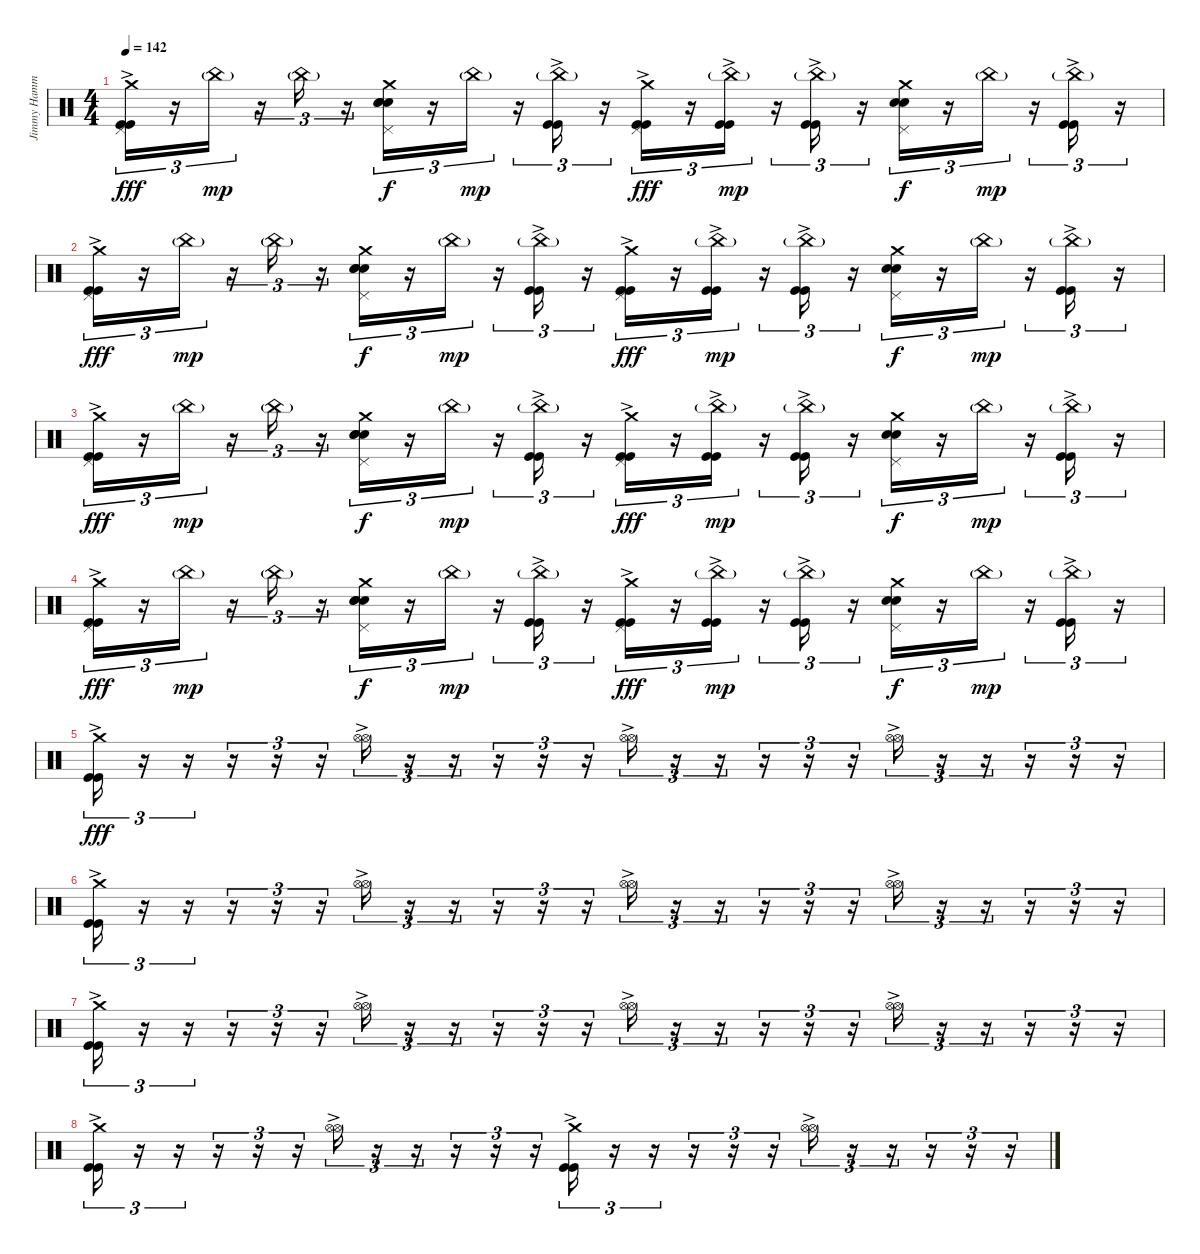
\track ("Jimmy Hammer" "Jimmy Hamm") {instrument percussion}
\staff {score}
\articulation defaults
\ts (4 4)
\tempo 142
\clef neutral
\ks c
("Kick (hit)"{ac} "Crash medium (hit)" "Pedal Hi-Hat (hit)" "Kick (hit)"{ac}).16{tu (3 2) dy fff} r.16{tu (3 2)} "China (hit)"{g}.16{tu (3 2) dy mp} r.16{tu (3 2)} "China (hit)"{g}.16{tu (3 2)} r.16{tu (3 2)} ("Crash medium (hit)" "Electric Snare (hit)" "Electric Snare (hit)" "Electric Snare (hit)" "Pedal Hi-Hat (hit)").16{tu (3 2) dy f} r.16{tu (3 2)} "China (hit)"{g}.16{tu (3 2) dy mp} r.16{tu (3 2)} ("Kick (hit)"{ac} "Kick (hit)"{ac} "China (hit)"{g}).16{tu (3 2)} r.16{tu (3 2)} ("Crash medium (hit)" "Kick (hit)"{ac} "Kick (hit)"{ac} "Pedal Hi-Hat (hit)").16{tu (3 2) dy fff} r.16{tu (3 2)} ("Kick (hit)"{ac} "Kick (hit)"{ac} "China (hit)"{g}).16{tu (3 2) dy mp} r.16{tu (3 2)} ("Kick (hit)"{ac} "Kick (hit)"{ac} "China (hit)"{g}).16{tu (3 2)} r.16{tu (3 2)} ("Electric Snare (hit)" "Electric Snare (hit)" "Crash medium (hit)" "Pedal Hi-Hat (hit)").16{tu (3 2) dy f} r.16{tu (3 2)} "China (hit)"{g}.16{tu (3 2) dy mp} r.16{tu (3 2)} ("Kick (hit)"{ac} "Kick (hit)"{ac} "China (hit)"{g}).16{tu (3 2)} r.16{tu (3 2)} |
("Kick (hit)"{ac} "Crash medium (hit)" "Pedal Hi-Hat (hit)" "Kick (hit)"{ac}).16{tu (3 2) dy fff} r.16{tu (3 2)} "China (hit)"{g}.16{tu (3 2) dy mp} r.16{tu (3 2)} "China (hit)"{g}.16{tu (3 2)} r.16{tu (3 2)} ("Crash medium (hit)" "Electric Snare (hit)" "Electric Snare (hit)" "Electric Snare (hit)" "Pedal Hi-Hat (hit)").16{tu (3 2) dy f} r.16{tu (3 2)} "China (hit)"{g}.16{tu (3 2) dy mp} r.16{tu (3 2)} ("Kick (hit)"{ac} "Kick (hit)"{ac} "China (hit)"{g}).16{tu (3 2)} r.16{tu (3 2)} ("Crash medium (hit)" "Kick (hit)"{ac} "Kick (hit)"{ac} "Pedal Hi-Hat (hit)").16{tu (3 2) dy fff} r.16{tu (3 2)} ("Kick (hit)"{ac} "Kick (hit)"{ac} "China (hit)"{g}).16{tu (3 2) dy mp} r.16{tu (3 2)} ("Kick (hit)"{ac} "Kick (hit)"{ac} "China (hit)"{g}).16{tu (3 2)} r.16{tu (3 2)} ("Electric Snare (hit)" "Electric Snare (hit)" "Crash medium (hit)" "Pedal Hi-Hat (hit)").16{tu (3 2) dy f} r.16{tu (3 2)} "China (hit)"{g}.16{tu (3 2) dy mp} r.16{tu (3 2)} ("Kick (hit)"{ac} "Kick (hit)"{ac} "China (hit)"{g}).16{tu (3 2)} r.16{tu (3 2)} |
("Kick (hit)"{ac} "Crash medium (hit)" "Pedal Hi-Hat (hit)" "Kick (hit)"{ac}).16{tu (3 2) dy fff} r.16{tu (3 2)} "China (hit)"{g}.16{tu (3 2) dy mp} r.16{tu (3 2)} "China (hit)"{g}.16{tu (3 2)} r.16{tu (3 2)} ("Crash medium (hit)" "Electric Snare (hit)" "Electric Snare (hit)" "Electric Snare (hit)" "Pedal Hi-Hat (hit)").16{tu (3 2) dy f} r.16{tu (3 2)} "China (hit)"{g}.16{tu (3 2) dy mp} r.16{tu (3 2)} ("Kick (hit)"{ac} "Kick (hit)"{ac} "China (hit)"{g}).16{tu (3 2)} r.16{tu (3 2)} ("Crash medium (hit)" "Kick (hit)"{ac} "Kick (hit)"{ac} "Pedal Hi-Hat (hit)").16{tu (3 2) dy fff} r.16{tu (3 2)} ("Kick (hit)"{ac} "Kick (hit)"{ac} "China (hit)"{g}).16{tu (3 2) dy mp} r.16{tu (3 2)} ("Kick (hit)"{ac} "Kick (hit)"{ac} "China (hit)"{g}).16{tu (3 2)} r.16{tu (3 2)} ("Electric Snare (hit)" "Electric Snare (hit)" "Crash medium (hit)" "Pedal Hi-Hat (hit)").16{tu (3 2) dy f} r.16{tu (3 2)} "China (hit)"{g}.16{tu (3 2) dy mp} r.16{tu (3 2)} ("Kick (hit)"{ac} "Kick (hit)"{ac} "China (hit)"{g}).16{tu (3 2)} r.16{tu (3 2)} |
("Kick (hit)"{ac} "Crash medium (hit)" "Pedal Hi-Hat (hit)" "Kick (hit)"{ac}).16{tu (3 2) dy fff} r.16{tu (3 2)} "China (hit)"{g}.16{tu (3 2) dy mp} r.16{tu (3 2)} "China (hit)"{g}.16{tu (3 2)} r.16{tu (3 2)} ("Crash medium (hit)" "Electric Snare (hit)" "Electric Snare (hit)" "Electric Snare (hit)" "Pedal Hi-Hat (hit)").16{tu (3 2) dy f} r.16{tu (3 2)} "China (hit)"{g}.16{tu (3 2) dy mp} r.16{tu (3 2)} ("Kick (hit)"{ac} "Kick (hit)"{ac} "China (hit)"{g}).16{tu (3 2)} r.16{tu (3 2)} ("Crash medium (hit)" "Kick (hit)"{ac} "Kick (hit)"{ac} "Pedal Hi-Hat (hit)").16{tu (3 2) dy fff} r.16{tu (3 2)} ("Kick (hit)"{ac} "Kick (hit)"{ac} "China (hit)"{g}).16{tu (3 2) dy mp} r.16{tu (3 2)} ("Kick (hit)"{ac} "Kick (hit)"{ac} "China (hit)"{g}).16{tu (3 2)} r.16{tu (3 2)} ("Electric Snare (hit)" "Electric Snare (hit)" "Crash medium (hit)" "Pedal Hi-Hat (hit)").16{tu (3 2) dy f} r.16{tu (3 2)} "China (hit)"{g}.16{tu (3 2) dy mp} r.16{tu (3 2)} ("Kick (hit)"{ac} "Kick (hit)"{ac} "China (hit)"{g}).16{tu (3 2)} r.16{tu (3 2)} |
("Kick (hit)"{ac} "Crash medium (hit)"{ac} "Kick (hit)"{ac}).16{tu (3 2) dy fff} r.16{tu (3 2)} r.16{tu (3 2)} r.16{tu (3 2)} r.16{tu (3 2)} r.16{tu (3 2)} ("Hi-Hat (open)"{ac} "Hi-Hat (open)"{ac}).16{tu (3 2)} r.16{tu (3 2)} r.16{tu (3 2)} r.16{tu (3 2)} r.16{tu (3 2)} r.16{tu (3 2)} ("Hi-Hat (open)"{ac} "Hi-Hat (open)"{ac}).16{tu (3 2)} r.16{tu (3 2)} r.16{tu (3 2)} r.16{tu (3 2)} r.16{tu (3 2)} r.16{tu (3 2)} ("Hi-Hat (open)"{ac} "Hi-Hat (open)"{ac}).16{tu (3 2)} r.16{tu (3 2)} r.16{tu (3 2)} r.16{tu (3 2)} r.16{tu (3 2)} r.16{tu (3 2)} |
("Kick (hit)"{ac} "Crash medium (hit)"{ac} "Kick (hit)"{ac}).16{tu (3 2)} r.16{tu (3 2)} r.16{tu (3 2)} r.16{tu (3 2)} r.16{tu (3 2)} r.16{tu (3 2)} ("Hi-Hat (open)"{ac} "Hi-Hat (open)"{ac}).16{tu (3 2)} r.16{tu (3 2)} r.16{tu (3 2)} r.16{tu (3 2)} r.16{tu (3 2)} r.16{tu (3 2)} ("Hi-Hat (open)"{ac} "Hi-Hat (open)"{ac}).16{tu (3 2)} r.16{tu (3 2)} r.16{tu (3 2)} r.16{tu (3 2)} r.16{tu (3 2)} r.16{tu (3 2)} ("Hi-Hat (open)"{ac} "Hi-Hat (open)"{ac}).16{tu (3 2)} r.16{tu (3 2)} r.16{tu (3 2)} r.16{tu (3 2)} r.16{tu (3 2)} r.16{tu (3 2)} |
("Kick (hit)"{ac} "Crash medium (hit)"{ac} "Kick (hit)"{ac}).16{tu (3 2)} r.16{tu (3 2)} r.16{tu (3 2)} r.16{tu (3 2)} r.16{tu (3 2)} r.16{tu (3 2)} ("Hi-Hat (open)"{ac} "Hi-Hat (open)"{ac}).16{tu (3 2)} r.16{tu (3 2)} r.16{tu (3 2)} r.16{tu (3 2)} r.16{tu (3 2)} r.16{tu (3 2)} ("Hi-Hat (open)"{ac} "Hi-Hat (open)"{ac}).16{tu (3 2)} r.16{tu (3 2)} r.16{tu (3 2)} r.16{tu (3 2)} r.16{tu (3 2)} r.16{tu (3 2)} ("Hi-Hat (open)"{ac} "Hi-Hat (open)"{ac}).16{tu (3 2)} r.16{tu (3 2)} r.16{tu (3 2)} r.16{tu (3 2)} r.16{tu (3 2)} r.16{tu (3 2)} |
("Kick (hit)"{ac} "Crash medium (hit)"{ac} "Kick (hit)"{ac}).16{tu (3 2)} r.16{tu (3 2)} r.16{tu (3 2)} r.16{tu (3 2)} r.16{tu (3 2)} r.16{tu (3 2)} ("Hi-Hat (open)"{ac} "Hi-Hat (open)"{ac}).16{tu (3 2)} r.16{tu (3 2)} r.16{tu (3 2)} r.16{tu (3 2)} r.16{tu (3 2)} r.16{tu (3 2)} ("Kick (hit)"{ac} "Kick (hit)"{ac} "Crash medium (hit)"{ac}).16{tu (3 2)} r.16{tu (3 2)} r.16{tu (3 2)} r.16{tu (3 2)} r.16{tu (3 2)} r.16{tu (3 2)} ("Hi-Hat (open)"{ac} "Hi-Hat (open)"{ac}).16{tu (3 2)} r.16{tu (3 2)} r.16{tu (3 2)} r.16{tu (3 2)} r.16{tu (3 2)} r.16{tu (3 2)}
